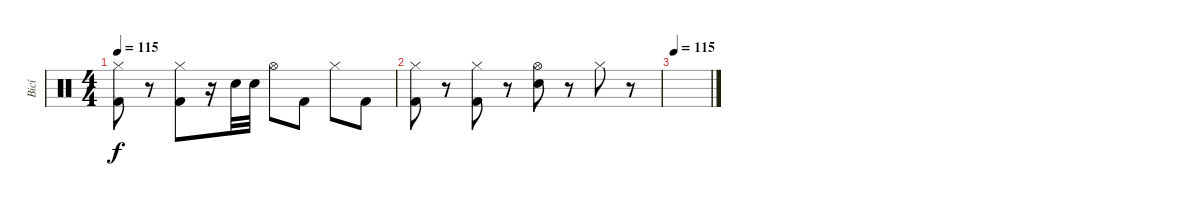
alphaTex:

\track ("Bicí" "Bicí") {instrument percussion}
\staff {score}
\articulation defaults
\ts (4 4)
\tempo 115
\clef neutral
\ks c
("Hi-Hat (closed)" "Kick (hit) 2").8{dy f} r.8 ("Hi-Hat (closed)" "Kick (hit) 2").8 r.16 "Snare (hit) 2".32 "Snare (hit) 2".32 "Hi-Hat (open)".8 "Kick (hit) 2".8 "Hi-Hat (closed)".8 "Kick (hit) 2".8 |
("Hi-Hat (closed)" "Kick (hit) 2").8 r.8 ("Hi-Hat (closed)" "Kick (hit) 2").8 r.8 ("Hi-Hat (open)" "Snare (hit) 2").8 r.8 "Hi-Hat (closed)".8 r.8 |
\tempo 115
